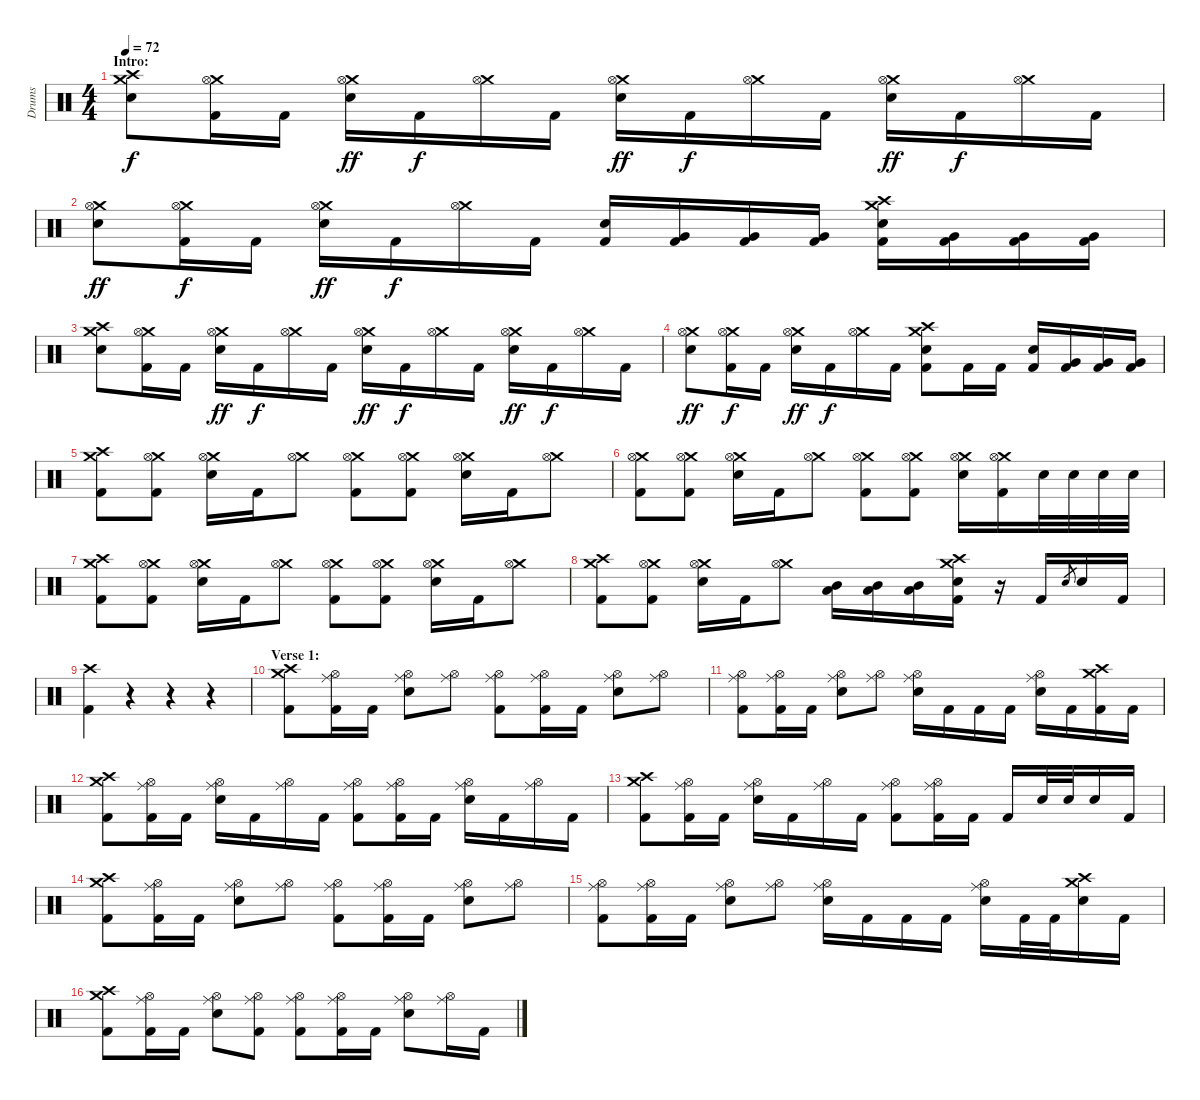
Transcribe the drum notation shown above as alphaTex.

\track ("Drums" "Drums") {instrument percussion}
\staff {score}
\articulation defaults
\ts (4 4)
\section ("" "Intro:")
\tempo 72
\clef neutral
\ks c
("Crash medium (hit)" "Crash high (hit)" "Electric Snare (hit)").8{dy f} ("Crash medium (hit)" "Hi-Hat (open)" "Kick (hit) 2").16 "Kick (hit) 2".16 ("Crash medium (hit)" "Hi-Hat (open)" "Electric Snare (hit)").16{dy ff} "Kick (hit) 2".16{dy f} ("Crash medium (hit)" "Hi-Hat (open)").16 "Kick (hit) 2".16 ("Crash medium (hit)" "Hi-Hat (open)" "Electric Snare (hit)").16{dy ff} "Kick (hit) 2".16{dy f} ("Crash medium (hit)" "Hi-Hat (open)").16 "Kick (hit) 2".16 ("Crash medium (hit)" "Hi-Hat (open)" "Electric Snare (hit)").16{dy ff} "Kick (hit) 2".16{dy f} ("Crash medium (hit)" "Hi-Hat (open)").16 "Kick (hit) 2".16 |
("Crash medium (hit)" "Hi-Hat (open)" "Electric Snare (hit)").8{dy ff} ("Crash medium (hit)" "Hi-Hat (open)" "Kick (hit) 2").16{dy f} "Kick (hit) 2".16 ("Crash medium (hit)" "Hi-Hat (open)" "Electric Snare (hit)").16{dy ff} "Kick (hit) 2".16{dy f} ("Crash medium (hit)" "Hi-Hat (open)").16 "Kick (hit) 2".16 ("Electric Snare (hit)" "Kick (hit) 2").16 ("Very Low Tom (hit)" "Kick (hit) 2").16 ("Very Low Tom (hit)" "Kick (hit) 2").16 ("Very Low Tom (hit)" "Kick (hit) 2").16 ("Crash medium (hit)" "Crash high (hit)" "Electric Snare (hit)" "Kick (hit) 2").16 ("Very Low Tom (hit)" "Kick (hit) 2").16 ("Very Low Tom (hit)" "Kick (hit) 2").16 ("Very Low Tom (hit)" "Kick (hit) 2").16 |
("Crash medium (hit)" "Crash high (hit)" "Electric Snare (hit)").8 ("Crash medium (hit)" "Hi-Hat (open)" "Kick (hit) 2").16 "Kick (hit) 2".16 ("Crash medium (hit)" "Hi-Hat (open)" "Electric Snare (hit)").16{dy ff} "Kick (hit) 2".16{dy f} ("Crash medium (hit)" "Hi-Hat (open)").16 "Kick (hit) 2".16 ("Crash medium (hit)" "Hi-Hat (open)" "Electric Snare (hit)").16{dy ff} "Kick (hit) 2".16{dy f} ("Crash medium (hit)" "Hi-Hat (open)").16 "Kick (hit) 2".16 ("Crash medium (hit)" "Hi-Hat (open)" "Electric Snare (hit)").16{dy ff} "Kick (hit) 2".16{dy f} ("Crash medium (hit)" "Hi-Hat (open)").16 "Kick (hit) 2".16 |
("Crash medium (hit)" "Hi-Hat (open)" "Electric Snare (hit)").8{dy ff} ("Crash medium (hit)" "Hi-Hat (open)" "Kick (hit) 2").16{dy f} "Kick (hit) 2".16 ("Crash medium (hit)" "Hi-Hat (open)" "Electric Snare (hit)").16{dy ff} "Kick (hit) 2".16{dy f} ("Crash medium (hit)" "Hi-Hat (open)").16 "Kick (hit) 2".16 ("Crash medium (hit)" "Crash high (hit)" "Electric Snare (hit)" "Kick (hit) 2").8 "Kick (hit) 2".16 "Kick (hit) 2".16 ("Electric Snare (hit)" "Kick (hit) 2").16 ("Very Low Tom (hit)" "Kick (hit) 2").16 ("Very Low Tom (hit)" "Kick (hit) 2").16 ("Very Low Tom (hit)" "Kick (hit) 2").16 |
("Crash medium (hit)" "Crash high (hit)" "Kick (hit) 2").8 ("Crash medium (hit)" "Hi-Hat (open)" "Kick (hit) 2").8 ("Crash medium (hit)" "Hi-Hat (open)" "Electric Snare (hit)").16 "Kick (hit) 2".16 ("Crash medium (hit)" "Hi-Hat (open)").8 ("Crash medium (hit)" "Hi-Hat (open)" "Kick (hit) 2").8 ("Crash medium (hit)" "Hi-Hat (open)" "Kick (hit) 2").8 ("Crash medium (hit)" "Hi-Hat (open)" "Electric Snare (hit)").16 "Kick (hit) 2".16 ("Crash medium (hit)" "Hi-Hat (open)").8 |
("Crash medium (hit)" "Hi-Hat (open)" "Kick (hit) 2").8 ("Crash medium (hit)" "Hi-Hat (open)" "Kick (hit) 2").8 ("Crash medium (hit)" "Hi-Hat (open)" "Electric Snare (hit)").16 "Kick (hit) 2".16 ("Crash medium (hit)" "Hi-Hat (open)").8 ("Crash medium (hit)" "Hi-Hat (open)" "Kick (hit) 2").8 ("Crash medium (hit)" "Hi-Hat (open)" "Kick (hit) 2").8 ("Crash medium (hit)" "Hi-Hat (open)" "Electric Snare (hit)").16 ("Crash medium (hit)" "Hi-Hat (open)" "Kick (hit) 2").16 "Electric Snare (hit)".32 "Electric Snare (hit)".32 "Electric Snare (hit)".32 "Electric Snare (hit)".32 |
("Crash medium (hit)" "Crash high (hit)" "Kick (hit) 2").8 ("Crash medium (hit)" "Hi-Hat (open)" "Kick (hit) 2").8 ("Crash medium (hit)" "Hi-Hat (open)" "Electric Snare (hit)").16 "Kick (hit) 2".16 ("Crash medium (hit)" "Hi-Hat (open)").8 ("Crash medium (hit)" "Hi-Hat (open)" "Kick (hit) 2").8 ("Crash medium (hit)" "Hi-Hat (open)" "Kick (hit) 2").8 ("Crash medium (hit)" "Hi-Hat (open)" "Electric Snare (hit)").16 "Kick (hit) 2".16 ("Crash medium (hit)" "Hi-Hat (open)").8 |
("Crash medium (hit)" "Crash high (hit)" "Kick (hit) 2").8 ("Crash medium (hit)" "Hi-Hat (open)" "Kick (hit) 2").8 ("Crash medium (hit)" "Hi-Hat (open)" "Electric Snare (hit)").16 "Kick (hit) 2".16 ("Crash medium (hit)" "Hi-Hat (open)").8 ("Mid Tom (hit)" "Low Tom (hit)").16 ("Mid Tom (hit)" "Low Tom (hit)").16 ("Mid Tom (hit)" "Low Tom (hit)").16 ("Crash medium (hit)" "Crash high (hit)" "Electric Snare (hit)" "Kick (hit) 2").16 r.16 "Kick (hit) 2".16 "Electric Snare (hit)".8{gr} "Electric Snare (hit)".16 "Kick (hit) 2".16 |
("Crash high (hit)" "Kick (hit) 2").4 r.4 r.4 r.4 |
\section ("" "Verse 1:")
("Crash medium (hit)" "Crash high (hit)" "Kick (hit) 2").8 ("Ride (middle)" "Hi-Hat (open)" "Kick (hit) 2").16 "Kick (hit) 2".16 ("Ride (middle)" "Hi-Hat (open)" "Electric Snare (hit)").8 ("Ride (middle)" "Hi-Hat (open)").8 ("Ride (middle)" "Hi-Hat (open)" "Kick (hit) 2").8 ("Ride (middle)" "Hi-Hat (open)" "Kick (hit) 2").16 "Kick (hit) 2".16 ("Ride (middle)" "Hi-Hat (open)" "Electric Snare (hit)").8 ("Ride (middle)" "Hi-Hat (open)").8 |
("Ride (middle)" "Hi-Hat (open)" "Kick (hit) 2").8 ("Ride (middle)" "Hi-Hat (open)" "Kick (hit) 2").16 "Kick (hit) 2".16 ("Ride (middle)" "Hi-Hat (open)" "Electric Snare (hit)").8 ("Ride (middle)" "Hi-Hat (open)").8 ("Ride (middle)" "Hi-Hat (open)" "Electric Snare (hit)").16 "Kick (hit) 2".16 "Kick (hit) 2".16 "Kick (hit) 2".16 ("Ride (middle)" "Hi-Hat (open)" "Electric Snare (hit)").16 "Kick (hit) 2".16 ("Crash medium (hit)" "Crash high (hit)" "Kick (hit) 2").16 "Kick (hit) 2".16 |
("Crash medium (hit)" "Crash high (hit)" "Kick (hit) 2").8 ("Ride (middle)" "Hi-Hat (open)" "Kick (hit) 2").16 "Kick (hit) 2".16 ("Ride (middle)" "Hi-Hat (open)" "Electric Snare (hit)").16 "Kick (hit) 2".16 ("Ride (middle)" "Hi-Hat (open)").16 "Kick (hit) 2".16 ("Ride (middle)" "Hi-Hat (open)" "Kick (hit) 2").8 ("Ride (middle)" "Hi-Hat (open)" "Kick (hit) 2").16 "Kick (hit) 2".16 ("Ride (middle)" "Hi-Hat (open)" "Electric Snare (hit)").16 "Kick (hit) 2".16 ("Ride (middle)" "Hi-Hat (open)").16 "Kick (hit) 2".16 |
("Crash medium (hit)" "Crash high (hit)" "Kick (hit) 2").8 ("Ride (middle)" "Hi-Hat (open)" "Kick (hit) 2").16 "Kick (hit) 2".16 ("Ride (middle)" "Hi-Hat (open)" "Electric Snare (hit)").16 "Kick (hit) 2".16 ("Ride (middle)" "Hi-Hat (open)").16 "Kick (hit) 2".16 ("Ride (middle)" "Hi-Hat (open)" "Kick (hit) 2").8 ("Ride (middle)" "Hi-Hat (open)" "Kick (hit) 2").16 "Kick (hit) 2".16 "Kick (hit) 2".16 "Electric Snare (hit)".32 "Electric Snare (hit)".32 "Electric Snare (hit)".16 "Kick (hit) 2".16 |
("Crash medium (hit)" "Crash high (hit)" "Kick (hit) 2").8 ("Ride (middle)" "Hi-Hat (open)" "Kick (hit) 2").16 "Kick (hit) 2".16 ("Ride (middle)" "Hi-Hat (open)" "Electric Snare (hit)").8 ("Ride (middle)" "Hi-Hat (open)").8 ("Ride (middle)" "Hi-Hat (open)" "Kick (hit) 2").8 ("Ride (middle)" "Hi-Hat (open)" "Kick (hit) 2").16 "Kick (hit) 2".16 ("Ride (middle)" "Hi-Hat (open)" "Electric Snare (hit)").8 ("Ride (middle)" "Hi-Hat (open)").8 |
("Ride (middle)" "Hi-Hat (open)" "Kick (hit) 2").8 ("Ride (middle)" "Hi-Hat (open)" "Kick (hit) 2").16 "Kick (hit) 2".16 ("Ride (middle)" "Hi-Hat (open)" "Electric Snare (hit)").8 ("Ride (middle)" "Hi-Hat (open)").8 ("Ride (middle)" "Hi-Hat (open)" "Electric Snare (hit)").16 "Kick (hit) 2".16 "Kick (hit) 2".16 "Kick (hit) 2".16 ("Ride (middle)" "Hi-Hat (open)" "Electric Snare (hit)").16 "Kick (hit) 2".32 "Kick (hit) 2".32 ("Crash medium (hit)" "Crash high (hit)" "Electric Snare (hit)").16 "Kick (hit) 2".16 |
("Crash medium (hit)" "Crash high (hit)" "Kick (hit) 2").8 ("Ride (middle)" "Hi-Hat (open)" "Kick (hit) 2").16 "Kick (hit) 2".16 ("Ride (middle)" "Hi-Hat (open)" "Electric Snare (hit)").8 ("Ride (middle)" "Hi-Hat (open)" "Kick (hit) 2").8 ("Ride (middle)" "Hi-Hat (open)" "Kick (hit) 2").8 ("Ride (middle)" "Hi-Hat (open)" "Kick (hit) 2").16 "Kick (hit) 2".16 ("Ride (middle)" "Hi-Hat (open)" "Electric Snare (hit)").8 ("Ride (middle)" "Hi-Hat (open)").16 "Kick (hit) 2".16
